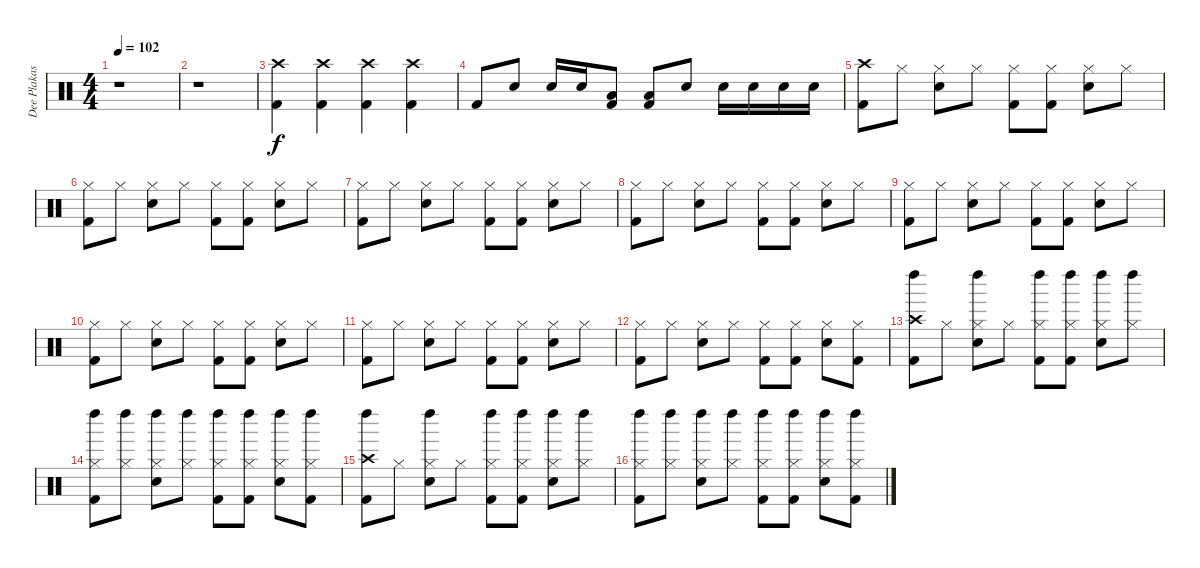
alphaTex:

\track ("Dee Plakas" "Dee Plakas") {instrument percussion}
\staff {score}
\articulation defaults
\ts (4 4)
\tempo 102
\clef neutral
\ks c
r.1{dy f} |
r.1 |
("Crash high (hit)" "Kick (hit) 2").4 ("Crash high (hit)" "Kick (hit) 2").4 ("Crash high (hit)" "Kick (hit) 2").4 ("Crash high (hit)" "Kick (hit) 2").4 |
"Kick (hit) 2".8 "Snare (hit) 2".8 "Snare (hit) 2".16 "Snare (hit) 2".16 ("Low Floor Tom (hit)" "Kick (hit) 2").8 ("Low Floor Tom (hit)" "Kick (hit) 2").8 "Snare (hit) 2".8 "Snare (hit) 2".16 "Snare (hit) 2".16 "Snare (hit) 2".16 "Snare (hit) 2".16 |
("Crash high (hit)" "Kick (hit) 2").8 "Hi-Hat (closed)".8 ("Hi-Hat (closed)" "Snare (hit) 2").8 "Hi-Hat (closed)".8 ("Hi-Hat (closed)" "Kick (hit) 2").8 ("Hi-Hat (closed)" "Kick (hit) 2").8 ("Hi-Hat (closed)" "Snare (hit) 2").8 "Hi-Hat (closed)".8 |
("Hi-Hat (closed)" "Kick (hit) 2").8 "Hi-Hat (closed)".8 ("Hi-Hat (closed)" "Snare (hit) 2").8 "Hi-Hat (closed)".8 ("Hi-Hat (closed)" "Kick (hit) 2").8 ("Hi-Hat (closed)" "Kick (hit) 2").8 ("Hi-Hat (closed)" "Snare (hit) 2").8 "Hi-Hat (closed)".8 |
("Hi-Hat (closed)" "Kick (hit) 2").8 "Hi-Hat (closed)".8 ("Hi-Hat (closed)" "Snare (hit) 2").8 "Hi-Hat (closed)".8 ("Hi-Hat (closed)" "Kick (hit) 2").8 ("Hi-Hat (closed)" "Kick (hit) 2").8 ("Hi-Hat (closed)" "Snare (hit) 2").8 "Hi-Hat (closed)".8 |
("Hi-Hat (closed)" "Kick (hit) 2").8 "Hi-Hat (closed)".8 ("Hi-Hat (closed)" "Snare (hit) 2").8 "Hi-Hat (closed)".8 ("Hi-Hat (closed)" "Kick (hit) 2").8 ("Hi-Hat (closed)" "Kick (hit) 2").8 ("Hi-Hat (closed)" "Snare (hit) 2").8 "Hi-Hat (closed)".8 |
("Hi-Hat (closed)" "Kick (hit) 2").8 "Hi-Hat (closed)".8 ("Hi-Hat (closed)" "Snare (hit) 2").8 "Hi-Hat (closed)".8 ("Hi-Hat (closed)" "Kick (hit) 2").8 ("Hi-Hat (closed)" "Kick (hit) 2").8 ("Hi-Hat (closed)" "Snare (hit) 2").8 "Hi-Hat (closed)".8 |
("Hi-Hat (closed)" "Kick (hit) 2").8 "Hi-Hat (closed)".8 ("Hi-Hat (closed)" "Snare (hit) 2").8 "Hi-Hat (closed)".8 ("Hi-Hat (closed)" "Kick (hit) 2").8 ("Hi-Hat (closed)" "Kick (hit) 2").8 ("Hi-Hat (closed)" "Snare (hit) 2").8 "Hi-Hat (closed)".8 |
("Hi-Hat (closed)" "Kick (hit) 2").8 "Hi-Hat (closed)".8 ("Hi-Hat (closed)" "Snare (hit) 2").8 "Hi-Hat (closed)".8 ("Hi-Hat (closed)" "Kick (hit) 2").8 ("Hi-Hat (closed)" "Kick (hit) 2").8 ("Hi-Hat (closed)" "Snare (hit) 2").8 "Hi-Hat (closed)".8 |
("Hi-Hat (closed)" "Kick (hit) 2").8 "Hi-Hat (closed)".8 ("Hi-Hat (closed)" "Snare (hit) 2").8 "Hi-Hat (closed)".8 ("Hi-Hat (closed)" "Kick (hit) 2").8 ("Hi-Hat (closed)" "Kick (hit) 2").8 ("Hi-Hat (closed)" "Snare (hit) 2").8 ("Hi-Hat (closed)" "Kick (hit) 2").8 |
("Crash high (hit)" "Left Maraca (hit)" "Kick (hit) 2").8 "Hi-Hat (closed)".8 ("Hi-Hat (closed)" "Left Maraca (hit)" "Snare (hit) 2").8 "Hi-Hat (closed)".8 ("Hi-Hat (closed)" "Left Maraca (hit)" "Kick (hit) 2").8 ("Hi-Hat (closed)" "Left Maraca (hit)" "Kick (hit) 2").8 ("Hi-Hat (closed)" "Left Maraca (hit)" "Snare (hit) 2").8 ("Hi-Hat (closed)" "Left Maraca (hit)").8 |
("Hi-Hat (closed)" "Left Maraca (hit)" "Kick (hit) 2").8 ("Hi-Hat (closed)" "Left Maraca (hit)").8 ("Hi-Hat (closed)" "Left Maraca (hit)" "Snare (hit) 2").8 ("Hi-Hat (closed)" "Left Maraca (hit)").8 ("Hi-Hat (closed)" "Left Maraca (hit)" "Kick (hit) 2").8 ("Hi-Hat (closed)" "Left Maraca (hit)" "Kick (hit) 2").8 ("Hi-Hat (closed)" "Left Maraca (hit)" "Snare (hit) 2").8 ("Hi-Hat (closed)" "Left Maraca (hit)" "Kick (hit) 2").8 |
("Crash high (hit)" "Left Maraca (hit)" "Kick (hit) 2").8 "Hi-Hat (closed)".8 ("Hi-Hat (closed)" "Left Maraca (hit)" "Snare (hit) 2").8 "Hi-Hat (closed)".8 ("Hi-Hat (closed)" "Left Maraca (hit)" "Kick (hit) 2").8 ("Hi-Hat (closed)" "Left Maraca (hit)" "Kick (hit) 2").8 ("Hi-Hat (closed)" "Left Maraca (hit)" "Snare (hit) 2").8 ("Hi-Hat (closed)" "Left Maraca (hit)").8 |
("Hi-Hat (closed)" "Left Maraca (hit)" "Kick (hit) 2").8 ("Hi-Hat (closed)" "Left Maraca (hit)").8 ("Hi-Hat (closed)" "Left Maraca (hit)" "Snare (hit) 2").8 ("Hi-Hat (closed)" "Left Maraca (hit)").8 ("Hi-Hat (closed)" "Left Maraca (hit)" "Kick (hit) 2").8 ("Hi-Hat (closed)" "Left Maraca (hit)" "Kick (hit) 2").8 ("Hi-Hat (closed)" "Left Maraca (hit)" "Snare (hit) 2").8 ("Hi-Hat (closed)" "Left Maraca (hit)" "Kick (hit) 2").8
